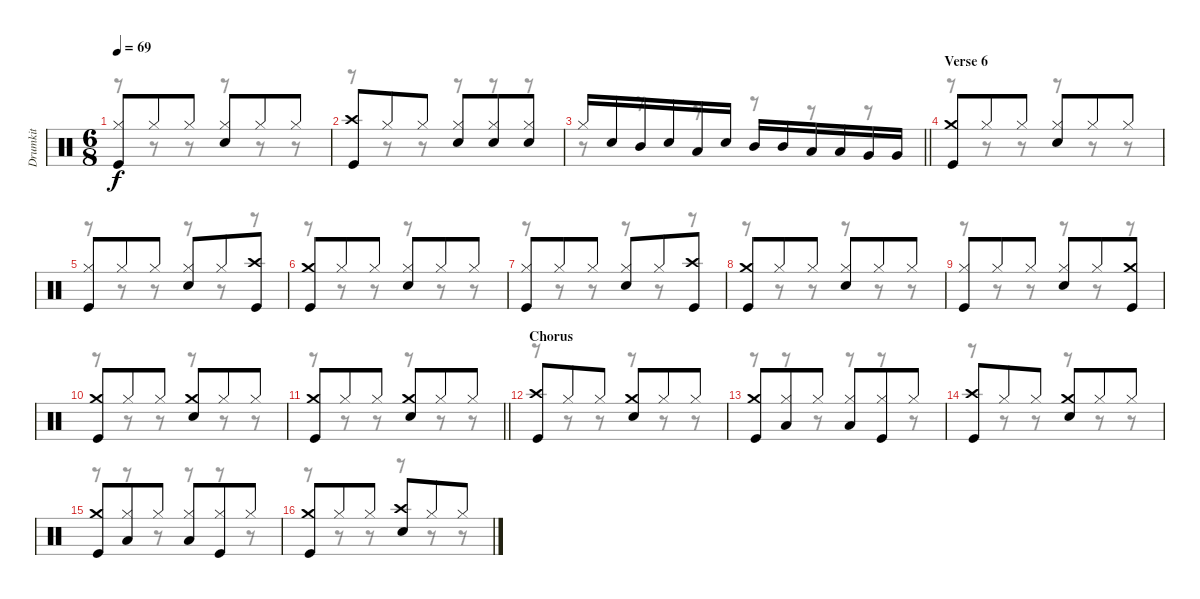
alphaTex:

\track ("Drumkit" "Drumkit") {instrument percussion}
\staff {score}
\articulation defaults
\voice
\ts (6 8)
\tempo 69
\clef neutral
\ks c
("Hi-Hat (closed)" "Kick (hit)").8{dy f} "Hi-Hat (closed)".8 "Hi-Hat (closed)".8 ("Hi-Hat (closed)" "Snare (hit) 2").8 "Hi-Hat (closed)".8 "Hi-Hat (closed)".8 |
("Crash high (hit)" "Kick (hit)").8 "Hi-Hat (closed)".8 "Hi-Hat (closed)".8 ("Hi-Hat (closed)" "Snare (hit) 2").8 ("Hi-Hat (closed)" "Snare (hit) 2").8 ("Hi-Hat (closed)" "Snare (hit) 2").8 |
\barLineRight lightlight "Hi-Hat (closed)".16 "Snare (hit) 2".16 "Mid Tom (hit)".16 "Snare (hit) 2".16 "Low Tom (hit)".16 "Snare (hit) 2".16 "Mid Tom (hit)".16 "Mid Tom (hit)".16 "Low Tom (hit)".16 "Low Tom (hit)".16 "Very Low Tom (hit)".16 "Very Low Tom (hit)".16
|
\section ("" "Verse 6")
("Crash medium (hit)" "Kick (hit)").8 "Hi-Hat (closed)".8 "Hi-Hat (closed)".8 ("Hi-Hat (closed)" "Snare (hit) 2").8 "Hi-Hat (closed)".8 "Hi-Hat (closed)".8 |
("Hi-Hat (closed)" "Kick (hit)").8 "Hi-Hat (closed)".8 "Hi-Hat (closed)".8 ("Hi-Hat (closed)" "Snare (hit) 2").8 "Hi-Hat (closed)".8 ("Crash high (hit)" "Kick (hit)").8 |
("Crash medium (hit)" "Kick (hit)").8 "Hi-Hat (closed)".8 "Hi-Hat (closed)".8 ("Hi-Hat (closed)" "Snare (hit) 2").8 "Hi-Hat (closed)".8 "Hi-Hat (closed)".8 |
("Hi-Hat (closed)" "Kick (hit)").8 "Hi-Hat (closed)".8 "Hi-Hat (closed)".8 ("Hi-Hat (closed)" "Snare (hit) 2").8 "Hi-Hat (closed)".8 ("Crash high (hit)" "Kick (hit)").8 |
("Crash medium (hit)" "Kick (hit)").8 "Hi-Hat (closed)".8 "Hi-Hat (closed)".8 ("Hi-Hat (closed)" "Snare (hit) 2").8 "Hi-Hat (closed)".8 "Hi-Hat (closed)".8 |
("Hi-Hat (closed)" "Kick (hit)").8 "Hi-Hat (closed)".8 "Hi-Hat (closed)".8 ("Hi-Hat (closed)" "Snare (hit) 2").8 "Hi-Hat (closed)".8 ("Crash medium (hit)" "Kick (hit)").8 |
("Crash medium (hit)" "Kick (hit)").8 "Hi-Hat (closed)".8 "Hi-Hat (closed)".8 ("Crash medium (hit)" "Snare (hit) 2").8 "Hi-Hat (closed)".8 "Hi-Hat (closed)".8 |
\barLineRight lightlight
("Crash medium (hit)" "Kick (hit)").8 "Hi-Hat (closed)".8 "Hi-Hat (closed)".8 ("Crash medium (hit)" "Snare (hit) 2").8 "Hi-Hat (closed)".8 "Hi-Hat (closed)".8 |
\section ("" "Chorus")
("Crash high (hit)" "Kick (hit)").8 "Hi-Hat (closed)".8 "Hi-Hat (closed)".8 ("Crash medium (hit)" "Snare (hit) 2").8 "Hi-Hat (closed)".8 "Hi-Hat (closed)".8 |
("Crash medium (hit)" "Kick (hit)").8 ("Hi-Hat (closed)" "Low Tom (hit)").8 "Hi-Hat (closed)".8 ("Hi-Hat (closed)" "Low Tom (hit)").8 ("Hi-Hat (closed)" "Kick (hit)").8 "Hi-Hat (closed)".8 |
("Crash high (hit)" "Kick (hit)").8 "Hi-Hat (closed)".8 "Hi-Hat (closed)".8 ("Crash medium (hit)" "Snare (hit) 2").8 "Hi-Hat (closed)".8 "Hi-Hat (closed)".8 |
("Crash medium (hit)" "Kick (hit)").8 ("Hi-Hat (closed)" "Low Tom (hit)").8 "Hi-Hat (closed)".8 ("Hi-Hat (closed)" "Low Tom (hit)").8 ("Hi-Hat (closed)" "Kick (hit)").8 "Hi-Hat (closed)".8 |
("Crash medium (hit)" "Kick (hit)").8 "Hi-Hat (closed)".8 "Hi-Hat (closed)".8 ("Crash high (hit)" "Snare (hit) 2").8 "Hi-Hat (closed)".8 "Hi-Hat (closed)".8
\voice
\clef neutral
\ottava regular
\simile none
\ks c
r.8{dy f} r.8 r.8 r.8 r.8 r.8 |
r.8 r.8 r.8 r.8 r.8 r.8 |
\barLineRight lightlight
r.8 r.8 r.8 r.8 r.8 r.8 |
r.8 r.8 r.8 r.8 r.8 r.8 |
r.8 r.8 r.8 r.8 r.8 r.8 |
r.8 r.8 r.8 r.8 r.8 r.8 |
r.8 r.8 r.8 r.8 r.8 r.8 |
r.8 r.8 r.8 r.8 r.8 r.8 |
r.8 r.8 r.8 r.8 r.8 r.8 |
r.8 r.8 r.8 r.8 r.8 r.8 |
\barLineRight lightlight
r.8 r.8 r.8 r.8 r.8 r.8 |
r.8 r.8 r.8 r.8 r.8 r.8 |
r.8 r.8 r.8 r.8 r.8 r.8 |
r.8 r.8 r.8 r.8 r.8 r.8 |
r.8 r.8 r.8 r.8 r.8 r.8 |
r.8 r.8 r.8 r.8 r.8 r.8
